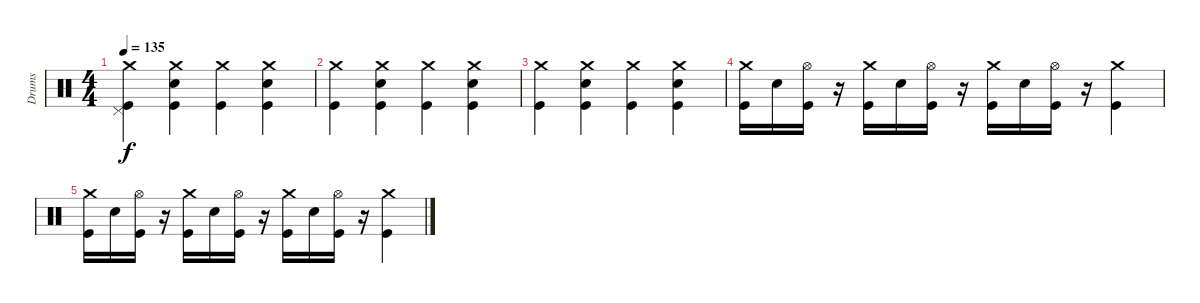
\track ("Drums" "Drums") {instrument percussion}
\staff {score}
\articulation defaults
\ts (4 4)
\tempo 135
\clef neutral
\ks c
("Crash medium (hit)" "Pedal Hi-Hat (hit)" "Kick (hit)").4{dy f} ("Crash medium (hit)" "Snare (hit) 2" "Kick (hit)").4 ("Crash medium (hit)" "Kick (hit)").4 ("Crash medium (hit)" "Snare (hit) 2" "Kick (hit)").4 |
("Crash medium (hit)" "Kick (hit)").4 ("Crash medium (hit)" "Snare (hit) 2" "Kick (hit)").4 ("Crash medium (hit)" "Kick (hit)").4 ("Crash medium (hit)" "Snare (hit) 2" "Kick (hit)").4 |
("Crash medium (hit)" "Kick (hit)").4 ("Crash medium (hit)" "Snare (hit) 2" "Kick (hit)").4 ("Crash medium (hit)" "Kick (hit)").4 ("Crash medium (hit)" "Snare (hit) 2" "Kick (hit)").4 |
("Crash medium (hit)" "Kick (hit)").16 "Snare (hit) 2".16 ("Hi-Hat (open)" "Kick (hit)").16 r.16 ("Crash medium (hit)" "Kick (hit)").16 "Snare (hit) 2".16 ("Hi-Hat (open)" "Kick (hit)").16 r.16 ("Crash medium (hit)" "Kick (hit)").16 "Snare (hit) 2".16 ("Hi-Hat (open)" "Kick (hit)").16 r.16 ("Crash medium (hit)" "Kick (hit)").4 |
("Crash medium (hit)" "Kick (hit)").16 "Snare (hit) 2".16 ("Hi-Hat (open)" "Kick (hit)").16 r.16 ("Crash medium (hit)" "Kick (hit)").16 "Snare (hit) 2".16 ("Hi-Hat (open)" "Kick (hit)").16 r.16 ("Crash medium (hit)" "Kick (hit)").16 "Snare (hit) 2".16 ("Hi-Hat (open)" "Kick (hit)").16 r.16 ("Crash medium (hit)" "Kick (hit)").4
